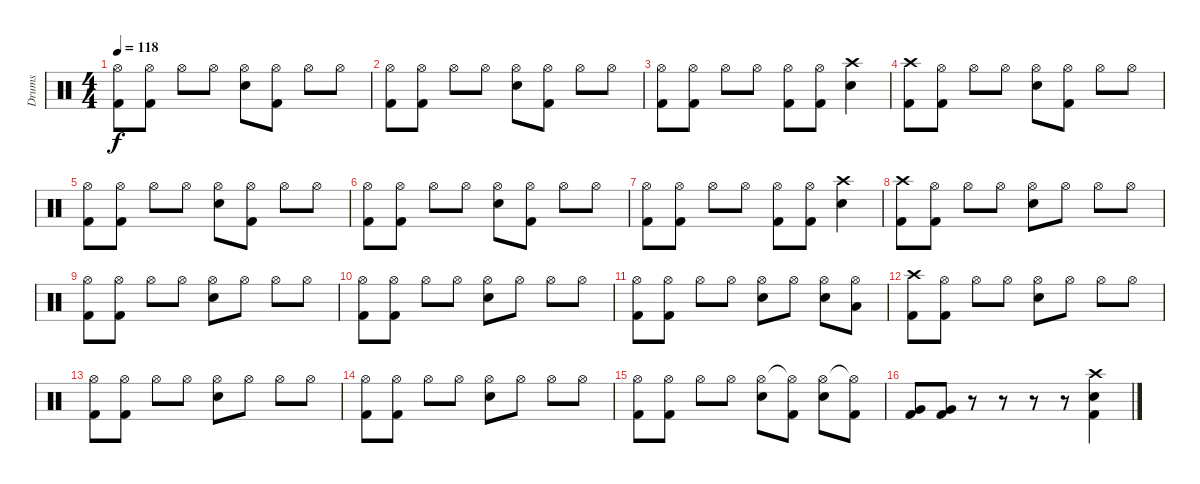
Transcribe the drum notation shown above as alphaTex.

\track ("Drums" "Drums") {instrument percussion}
\staff {score}
\articulation defaults
\ts (4 4)
\tempo 118
\clef neutral
\ks c
("Hi-Hat (open)" "Kick (hit) 2").8{dy f} ("Hi-Hat (open)" "Kick (hit) 2").8 "Hi-Hat (open)".8 "Hi-Hat (open)".8 ("Hi-Hat (open)" "Snare (hit) 2").8 ("Hi-Hat (open)" "Kick (hit) 2").8 "Hi-Hat (open)".8 "Hi-Hat (open)".8 |
("Hi-Hat (open)" "Kick (hit) 2").8 ("Hi-Hat (open)" "Kick (hit) 2").8 "Hi-Hat (open)".8 "Hi-Hat (open)".8 ("Hi-Hat (open)" "Snare (hit) 2").8 ("Hi-Hat (open)" "Kick (hit) 2").8 "Hi-Hat (open)".8 "Hi-Hat (open)".8 |
("Hi-Hat (open)" "Kick (hit) 2").8 ("Hi-Hat (open)" "Kick (hit) 2").8 "Hi-Hat (open)".8 "Hi-Hat (open)".8 ("Hi-Hat (open)" "Kick (hit) 2").8 ("Hi-Hat (open)" "Kick (hit) 2").8 ("Crash high (hit)" "Snare (hit) 2").4 |
("Crash high (hit)" "Kick (hit) 2").8 ("Hi-Hat (open)" "Kick (hit) 2").8 "Hi-Hat (open)".8 "Hi-Hat (open)".8 ("Hi-Hat (open)" "Snare (hit) 2").8 ("Hi-Hat (open)" "Kick (hit) 2").8 "Hi-Hat (open)".8 "Hi-Hat (open)".8 |
("Hi-Hat (open)" "Kick (hit) 2").8 ("Hi-Hat (open)" "Kick (hit) 2").8 "Hi-Hat (open)".8 "Hi-Hat (open)".8 ("Hi-Hat (open)" "Snare (hit) 2").8 ("Hi-Hat (open)" "Kick (hit) 2").8 "Hi-Hat (open)".8 "Hi-Hat (open)".8 |
("Hi-Hat (open)" "Kick (hit) 2").8 ("Hi-Hat (open)" "Kick (hit) 2").8 "Hi-Hat (open)".8 "Hi-Hat (open)".8 ("Hi-Hat (open)" "Snare (hit) 2").8 ("Hi-Hat (open)" "Kick (hit) 2").8 "Hi-Hat (open)".8 "Hi-Hat (open)".8 |
("Hi-Hat (open)" "Kick (hit) 2").8 ("Hi-Hat (open)" "Kick (hit) 2").8 "Hi-Hat (open)".8 "Hi-Hat (open)".8 ("Hi-Hat (open)" "Kick (hit) 2").8 ("Hi-Hat (open)" "Kick (hit) 2").8 ("Crash high (hit)" "Snare (hit) 2").4 |
("Crash high (hit)" "Kick (hit) 2").8 ("Hi-Hat (open)" "Kick (hit) 2").8 "Hi-Hat (open)".8 "Hi-Hat (open)".8 ("Hi-Hat (open)" "Snare (hit) 2").8 "Hi-Hat (open)".8 "Hi-Hat (open)".8 "Hi-Hat (open)".8 |
("Hi-Hat (open)" "Kick (hit) 2").8 ("Hi-Hat (open)" "Kick (hit) 2").8 "Hi-Hat (open)".8 "Hi-Hat (open)".8 ("Hi-Hat (open)" "Snare (hit) 2").8 "Hi-Hat (open)".8 "Hi-Hat (open)".8 "Hi-Hat (open)".8 |
("Hi-Hat (open)" "Kick (hit) 2").8 ("Hi-Hat (open)" "Kick (hit) 2").8 "Hi-Hat (open)".8 "Hi-Hat (open)".8 ("Hi-Hat (open)" "Snare (hit) 2").8 "Hi-Hat (open)".8 "Hi-Hat (open)".8 "Hi-Hat (open)".8 |
("Hi-Hat (open)" "Kick (hit) 2").8 ("Hi-Hat (open)" "Kick (hit) 2").8 "Hi-Hat (open)".8 "Hi-Hat (open)".8 ("Hi-Hat (open)" "Snare (hit) 2").8 "Hi-Hat (open)".8 ("Hi-Hat (open)" "Snare (hit) 2").8 ("Hi-Hat (open)" "Low Tom (hit)").8 |
("Crash high (hit)" "Kick (hit) 2").8 ("Hi-Hat (open)" "Kick (hit) 2").8 "Hi-Hat (open)".8 "Hi-Hat (open)".8 ("Hi-Hat (open)" "Snare (hit) 2").8 "Hi-Hat (open)".8 "Hi-Hat (open)".8 "Hi-Hat (open)".8 |
("Hi-Hat (open)" "Kick (hit) 2").8 ("Hi-Hat (open)" "Kick (hit) 2").8 "Hi-Hat (open)".8 "Hi-Hat (open)".8 ("Hi-Hat (open)" "Snare (hit) 2").8 "Hi-Hat (open)".8 "Hi-Hat (open)".8 "Hi-Hat (open)".8 |
("Hi-Hat (open)" "Kick (hit) 2").8 ("Hi-Hat (open)" "Kick (hit) 2").8 "Hi-Hat (open)".8 "Hi-Hat (open)".8 ("Hi-Hat (open)" "Snare (hit) 2").8 "Hi-Hat (open)".8 "Hi-Hat (open)".8 "Hi-Hat (open)".8 |
("Hi-Hat (open)" "Kick (hit) 2").8 ("Hi-Hat (open)" "Kick (hit) 2").8 "Hi-Hat (open)".8 "Hi-Hat (open)".8 ("Hi-Hat (open)" "Snare (hit) 2").8 ("Hi-Hat (open)"{t} "Kick (hit) 2").8 ("Hi-Hat (open)" "Snare (hit) 2").8 ("Hi-Hat (open)"{t} "Kick (hit) 2").8 |
("Very Low Tom (hit)" "Kick (hit) 2").8 ("Very Low Tom (hit)" "Kick (hit) 2").8 r.8 r.8 r.8 r.8 ("Crash high (hit)" "Snare (hit) 2" "Kick (hit) 2").4
